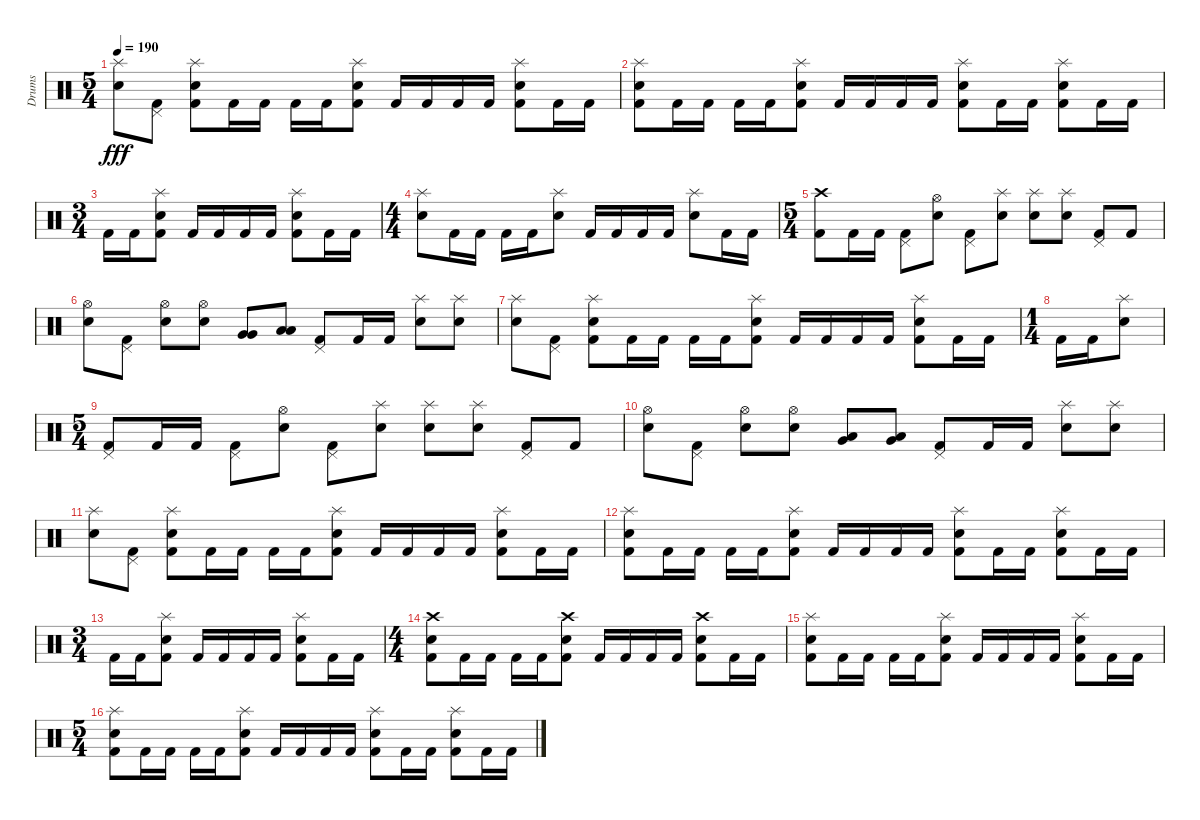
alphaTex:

\track ("Drums" "Drums") {instrument percussion}
\staff {score}
\articulation defaults
\ts (5 4)
\tempo 190
\clef neutral
\ks c
("Splash (hit)" "Snare (hit) 2").8{dy fff} ("Pedal Hi-Hat (hit)" "Kick (hit) 2").8 ("Splash (hit)" "Snare (hit) 2" "Kick (hit) 2").8 "Kick (hit) 2".16 "Kick (hit) 2".16 "Kick (hit) 2".16 "Kick (hit) 2".16 ("Splash (hit)" "Snare (hit) 2" "Kick (hit) 2").8 "Kick (hit) 2".16 "Kick (hit) 2".16 "Kick (hit) 2".16 "Kick (hit) 2".16 ("Splash (hit)" "Snare (hit) 2" "Kick (hit) 2").8 "Kick (hit) 2".16 "Kick (hit) 2".16 |
("Splash (hit)" "Snare (hit) 2" "Kick (hit) 2").8 "Kick (hit) 2".16 "Kick (hit) 2".16 "Kick (hit) 2".16 "Kick (hit) 2".16 ("Splash (hit)" "Snare (hit) 2" "Kick (hit) 2").8 "Kick (hit) 2".16 "Kick (hit) 2".16 "Kick (hit) 2".16 "Kick (hit) 2".16 ("Splash (hit)" "Snare (hit) 2" "Kick (hit) 2").8 "Kick (hit) 2".16 "Kick (hit) 2".16 ("Splash (hit)" "Snare (hit) 2" "Kick (hit) 2").8 "Kick (hit) 2".16 "Kick (hit) 2".16 |
\ts (3 4)
"Kick (hit) 2".16 "Kick (hit) 2".16 ("Splash (hit)" "Snare (hit) 2" "Kick (hit) 2").8 "Kick (hit) 2".16 "Kick (hit) 2".16 "Kick (hit) 2".16 "Kick (hit) 2".16 ("Splash (hit)" "Snare (hit) 2" "Kick (hit) 2").8 "Kick (hit) 2".16 "Kick (hit) 2".16 |
\ts (4 4)
("Splash (hit)" "Snare (hit) 2").8 "Kick (hit) 2".16 "Kick (hit) 2".16 "Kick (hit) 2".16 "Kick (hit) 2".16 ("Splash (hit)" "Snare (hit) 2").8 "Kick (hit) 2".16 "Kick (hit) 2".16 "Kick (hit) 2".16 "Kick (hit) 2".16 ("Splash (hit)" "Snare (hit) 2").8 "Kick (hit) 2".16 "Kick (hit) 2".16 |
\ts (5 4)
("Crash high (hit)" "Kick (hit) 2").8 "Kick (hit) 2".16 "Kick (hit) 2".16 ("Pedal Hi-Hat (hit)" "Kick (hit) 2").8 ("Hi-Hat (open)" "Snare (hit) 2").8 ("Pedal Hi-Hat (hit)" "Kick (hit) 2").8 ("Splash (hit)" "Snare (hit) 2").8 ("Splash (hit)" "Snare (hit) 2").8 ("Splash (hit)" "Snare (hit) 2").8 ("Pedal Hi-Hat (hit)" "Kick (hit) 2").8 "Kick (hit) 2".8 |
("Hi-Hat (open)" "Snare (hit) 2").8 ("Pedal Hi-Hat (hit)" "Kick (hit) 2").8 ("Hi-Hat (open)" "Snare (hit) 2").8 ("Hi-Hat (open)" "Snare (hit) 2").8 ("Very Low Tom (hit)" "Very Low Tom (hit)").8 ("Low Floor Tom (hit)" "Low Floor Tom (hit)").8 ("Pedal Hi-Hat (hit)" "Kick (hit) 2").8 "Kick (hit) 2".16 "Kick (hit) 2".16 ("Splash (hit)" "Snare (hit) 2").8 ("Splash (hit)" "Snare (hit) 2").8 |
("Splash (hit)" "Snare (hit) 2").8 ("Pedal Hi-Hat (hit)" "Kick (hit) 2").8 ("Splash (hit)" "Snare (hit) 2" "Kick (hit) 2").8 "Kick (hit) 2".16 "Kick (hit) 2".16 "Kick (hit) 2".16 "Kick (hit) 2".16 ("Splash (hit)" "Snare (hit) 2" "Kick (hit) 2").8 "Kick (hit) 2".16 "Kick (hit) 2".16 "Kick (hit) 2".16 "Kick (hit) 2".16 ("Splash (hit)" "Snare (hit) 2" "Kick (hit) 2").8 "Kick (hit) 2".16 "Kick (hit) 2".16 |
\ts (1 4)
"Kick (hit) 2".16 "Kick (hit) 2".16 ("Splash (hit)" "Snare (hit) 2").8 |
\ts (5 4)
("Pedal Hi-Hat (hit)" "Kick (hit) 2").8 "Kick (hit) 2".16 "Kick (hit) 2".16 ("Pedal Hi-Hat (hit)" "Kick (hit) 2").8 ("Hi-Hat (open)" "Snare (hit) 2").8 ("Pedal Hi-Hat (hit)" "Kick (hit) 2").8 ("Splash (hit)" "Snare (hit) 2").8 ("Splash (hit)" "Snare (hit) 2").8 ("Splash (hit)" "Snare (hit) 2").8 ("Pedal Hi-Hat (hit)" "Kick (hit) 2").8 "Kick (hit) 2".8 |
("Hi-Hat (open)" "Snare (hit) 2").8 ("Pedal Hi-Hat (hit)" "Kick (hit) 2").8 ("Hi-Hat (open)" "Snare (hit) 2").8 ("Hi-Hat (open)" "Snare (hit) 2").8 ("Low Tom (hit)" "Very Low Tom (hit)").8 ("Very Low Tom (hit)" "Low Floor Tom (hit)").8 ("Pedal Hi-Hat (hit)" "Kick (hit) 2").8 "Kick (hit) 2".16 "Kick (hit) 2".16 ("Splash (hit)" "Snare (hit) 2").8 ("Splash (hit)" "Snare (hit) 2").8 |
("Splash (hit)" "Snare (hit) 2").8 ("Pedal Hi-Hat (hit)" "Kick (hit) 2").8 ("Splash (hit)" "Snare (hit) 2" "Kick (hit) 2").8 "Kick (hit) 2".16 "Kick (hit) 2".16 "Kick (hit) 2".16 "Kick (hit) 2".16 ("Splash (hit)" "Snare (hit) 2" "Kick (hit) 2").8 "Kick (hit) 2".16 "Kick (hit) 2".16 "Kick (hit) 2".16 "Kick (hit) 2".16 ("Splash (hit)" "Snare (hit) 2" "Kick (hit) 2").8 "Kick (hit) 2".16 "Kick (hit) 2".16 |
("Splash (hit)" "Snare (hit) 2" "Kick (hit) 2").8 "Kick (hit) 2".16 "Kick (hit) 2".16 "Kick (hit) 2".16 "Kick (hit) 2".16 ("Splash (hit)" "Snare (hit) 2" "Kick (hit) 2").8 "Kick (hit) 2".16 "Kick (hit) 2".16 "Kick (hit) 2".16 "Kick (hit) 2".16 ("Splash (hit)" "Snare (hit) 2" "Kick (hit) 2").8 "Kick (hit) 2".16 "Kick (hit) 2".16 ("Splash (hit)" "Snare (hit) 2" "Kick (hit) 2").8 "Kick (hit) 2".16 "Kick (hit) 2".16 |
\ts (3 4)
"Kick (hit) 2".16 "Kick (hit) 2".16 ("Splash (hit)" "Snare (hit) 2" "Kick (hit) 2").8 "Kick (hit) 2".16 "Kick (hit) 2".16 "Kick (hit) 2".16 "Kick (hit) 2".16 ("Splash (hit)" "Snare (hit) 2" "Kick (hit) 2").8 "Kick (hit) 2".16 "Kick (hit) 2".16 |
\ts (4 4)
("Crash high (hit)" "Snare (hit) 2" "Kick (hit) 2").8 "Kick (hit) 2".16 "Kick (hit) 2".16 "Kick (hit) 2".16 "Kick (hit) 2".16 ("Crash high (hit)" "Snare (hit) 2" "Kick (hit) 2").8 "Kick (hit) 2".16 "Kick (hit) 2".16 "Kick (hit) 2".16 "Kick (hit) 2".16 ("Crash high (hit)" "Snare (hit) 2" "Kick (hit) 2").8 "Kick (hit) 2".16 "Kick (hit) 2".16 |
("Splash (hit)" "Snare (hit) 2" "Kick (hit) 2").8 "Kick (hit) 2".16 "Kick (hit) 2".16 "Kick (hit) 2".16 "Kick (hit) 2".16 ("Splash (hit)" "Snare (hit) 2" "Kick (hit) 2").8 "Kick (hit) 2".16 "Kick (hit) 2".16 "Kick (hit) 2".16 "Kick (hit) 2".16 ("Splash (hit)" "Snare (hit) 2" "Kick (hit) 2").8 "Kick (hit) 2".16 "Kick (hit) 2".16 |
\ts (5 4)
("Splash (hit)" "Snare (hit) 2" "Kick (hit) 2").8 "Kick (hit) 2".16 "Kick (hit) 2".16 "Kick (hit) 2".16 "Kick (hit) 2".16 ("Splash (hit)" "Snare (hit) 2" "Kick (hit) 2").8 "Kick (hit) 2".16 "Kick (hit) 2".16 "Kick (hit) 2".16 "Kick (hit) 2".16 ("Splash (hit)" "Snare (hit) 2" "Kick (hit) 2").8 "Kick (hit) 2".16 "Kick (hit) 2".16 ("Splash (hit)" "Snare (hit) 2" "Kick (hit) 2").8 "Kick (hit) 2".16 "Kick (hit) 2".16
